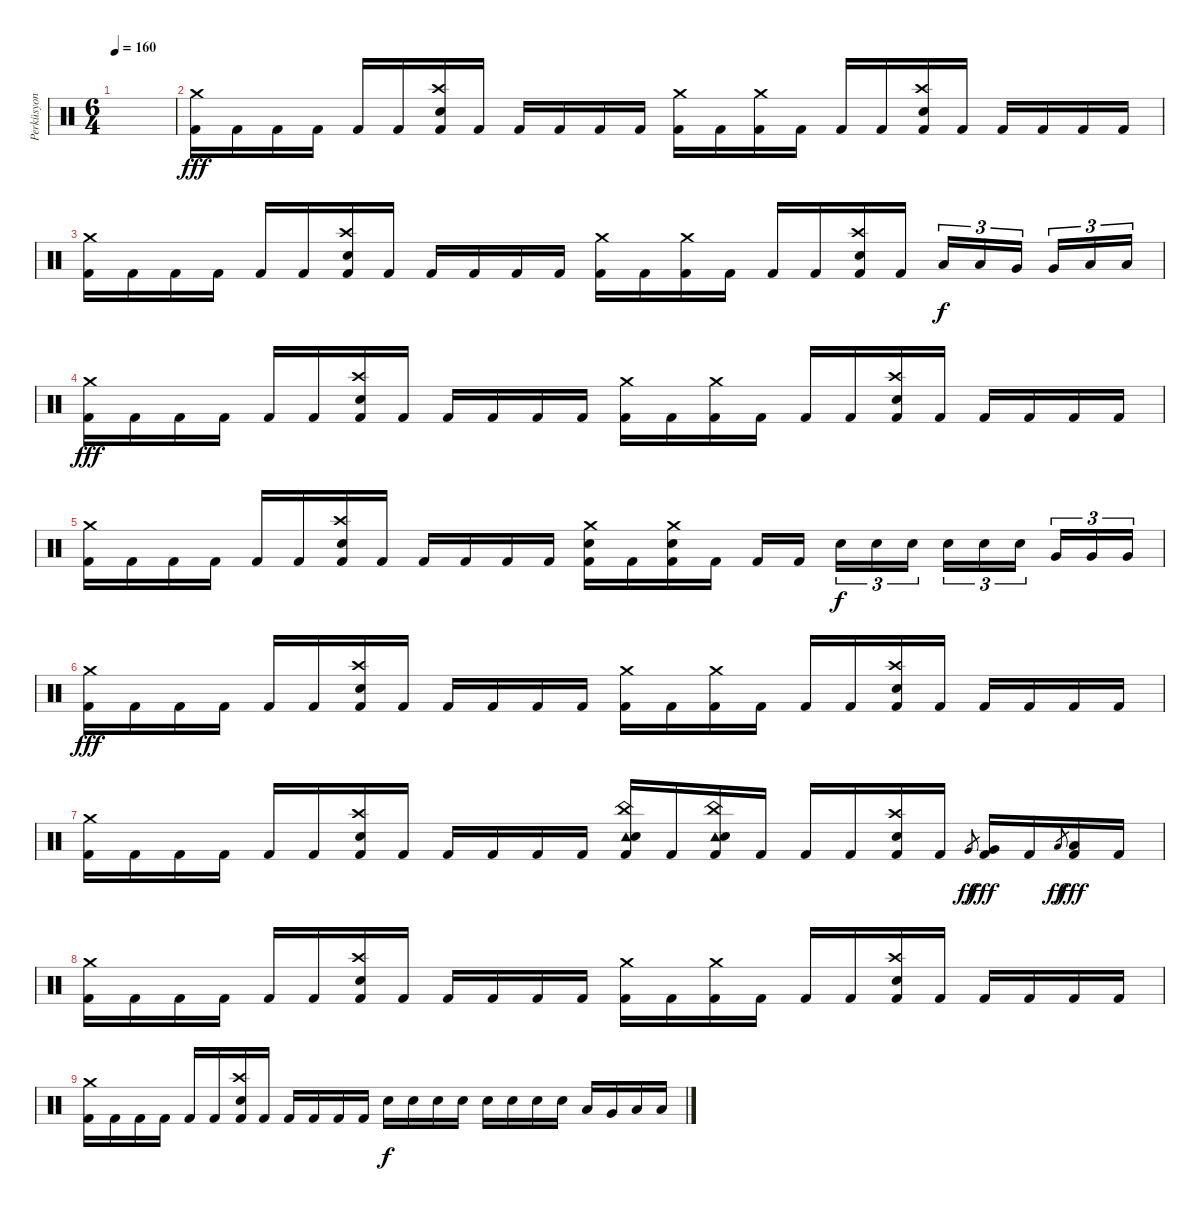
\track ("Perküsyon" "Perküsyon") {instrument percussion}
\staff {score}
\articulation defaults
\ts (6 4)
\tempo 160
\clef neutral
\ks c
|
("Crash medium (hit)" "Kick (hit) 2").16{dy fff} "Kick (hit) 2".16 "Kick (hit) 2".16 "Kick (hit) 2".16 "Kick (hit) 2".16 "Kick (hit) 2".16 ("Crash high (hit)" "Electric Snare (hit)" "Kick (hit) 2").16 "Kick (hit) 2".16 "Kick (hit) 2".16 "Kick (hit) 2".16 "Kick (hit) 2".16 "Kick (hit) 2".16 ("Crash medium (hit)" "Kick (hit) 2").16 "Kick (hit) 2".16 ("Crash medium (hit)" "Kick (hit) 2").16 "Kick (hit) 2".16 "Kick (hit) 2".16 "Kick (hit) 2".16 ("Crash high (hit)" "Electric Snare (hit)" "Kick (hit) 2").16 "Kick (hit) 2".16 "Kick (hit) 2".16 "Kick (hit) 2".16 "Kick (hit) 2".16 "Kick (hit) 2".16 |
("Crash medium (hit)" "Kick (hit) 2").16 "Kick (hit) 2".16 "Kick (hit) 2".16 "Kick (hit) 2".16 "Kick (hit) 2".16 "Kick (hit) 2".16 ("Crash high (hit)" "Electric Snare (hit)" "Kick (hit) 2").16 "Kick (hit) 2".16 "Kick (hit) 2".16 "Kick (hit) 2".16 "Kick (hit) 2".16 "Kick (hit) 2".16 ("Crash medium (hit)" "Kick (hit) 2").16 "Kick (hit) 2".16 ("Crash medium (hit)" "Kick (hit) 2").16 "Kick (hit) 2".16 "Kick (hit) 2".16 "Kick (hit) 2".16 ("Crash high (hit)" "Electric Snare (hit)" "Kick (hit) 2").16 "Kick (hit) 2".16 "Low Tom (hit)".16{tu (3 2) dy f} "Low Tom (hit)".16{tu (3 2)} "Very Low Tom (hit)".16{tu (3 2)} "Very Low Tom (hit)".16{tu (3 2)} "Low Floor Tom (hit)".16{tu (3 2)} "Low Floor Tom (hit)".16{tu (3 2)} |
("Crash medium (hit)" "Kick (hit) 2").16{dy fff} "Kick (hit) 2".16 "Kick (hit) 2".16 "Kick (hit) 2".16 "Kick (hit) 2".16 "Kick (hit) 2".16 ("Crash high (hit)" "Electric Snare (hit)" "Kick (hit) 2").16 "Kick (hit) 2".16 "Kick (hit) 2".16 "Kick (hit) 2".16 "Kick (hit) 2".16 "Kick (hit) 2".16 ("Crash medium (hit)" "Kick (hit) 2").16 "Kick (hit) 2".16 ("Crash medium (hit)" "Kick (hit) 2").16 "Kick (hit) 2".16 "Kick (hit) 2".16 "Kick (hit) 2".16 ("Crash high (hit)" "Electric Snare (hit)" "Kick (hit) 2").16 "Kick (hit) 2".16 "Kick (hit) 2".16 "Kick (hit) 2".16 "Kick (hit) 2".16 "Kick (hit) 2".16 |
("Crash medium (hit)" "Kick (hit) 2").16 "Kick (hit) 2".16 "Kick (hit) 2".16 "Kick (hit) 2".16 "Kick (hit) 2".16 "Kick (hit) 2".16 ("Crash high (hit)" "Electric Snare (hit)" "Kick (hit) 2").16 "Kick (hit) 2".16 "Kick (hit) 2".16 "Kick (hit) 2".16 "Kick (hit) 2".16 "Kick (hit) 2".16 ("Crash medium (hit)" "Electric Snare (hit)" "Kick (hit) 2").16 "Kick (hit) 2".16 ("Crash medium (hit)" "Electric Snare (hit)" "Kick (hit) 2").16 "Kick (hit) 2".16 "Kick (hit) 2".16 "Kick (hit) 2".16 "Electric Snare (hit)".16{tu (3 2) dy f} "Electric Snare (hit)".16{tu (3 2)} "Electric Snare (hit)".16{tu (3 2)} "Electric Snare (hit)".16{tu (3 2)} "Electric Snare (hit)".16{tu (3 2)} "Electric Snare (hit)".16{tu (3 2)} "Very Low Tom (hit)".16{tu (3 2)} "Very Low Tom (hit)".16{tu (3 2)} "Very Low Tom (hit)".16{tu (3 2)} |
("Crash medium (hit)" "Kick (hit) 2").16{dy fff} "Kick (hit) 2".16 "Kick (hit) 2".16 "Kick (hit) 2".16 "Kick (hit) 2".16 "Kick (hit) 2".16 ("Crash high (hit)" "Electric Snare (hit)" "Kick (hit) 2").16 "Kick (hit) 2".16 "Kick (hit) 2".16 "Kick (hit) 2".16 "Kick (hit) 2".16 "Kick (hit) 2".16 ("Crash medium (hit)" "Kick (hit) 2").16 "Kick (hit) 2".16 ("Crash medium (hit)" "Kick (hit) 2").16 "Kick (hit) 2".16 "Kick (hit) 2".16 "Kick (hit) 2".16 ("Crash high (hit)" "Electric Snare (hit)" "Kick (hit) 2").16 "Kick (hit) 2".16 "Kick (hit) 2".16 "Kick (hit) 2".16 "Kick (hit) 2".16 "Kick (hit) 2".16 |
("Crash medium (hit)" "Kick (hit) 2").16 "Kick (hit) 2".16 "Kick (hit) 2".16 "Kick (hit) 2".16 "Kick (hit) 2".16 "Kick (hit) 2".16 ("Crash high (hit)" "Electric Snare (hit)" "Kick (hit) 2").16 "Kick (hit) 2".16 "Kick (hit) 2".16 "Kick (hit) 2".16 "Kick (hit) 2".16 "Kick (hit) 2".16 ("China (hit)" "Tambourine (hit)" "Electric Snare (hit)" "Kick (hit) 2").16 "Kick (hit) 2".16 ("China (hit)" "Tambourine (hit)" "Electric Snare (hit)" "Kick (hit) 2").16 "Kick (hit) 2".16 "Kick (hit) 2".16 "Kick (hit) 2".16 ("Crash high (hit)" "Electric Snare (hit)" "Kick (hit) 2").16 "Kick (hit) 2".16 "Very Low Tom (hit)".8{gr dy ff} ("Very Low Tom (hit)" "Kick (hit) 2").16{dy fff} "Kick (hit) 2".16 "Low Floor Tom (hit)".8{gr dy ff} ("Low Floor Tom (hit)" "Kick (hit) 2").16{dy fff} "Kick (hit) 2".16 |
("Crash medium (hit)" "Kick (hit) 2").16 "Kick (hit) 2".16 "Kick (hit) 2".16 "Kick (hit) 2".16 "Kick (hit) 2".16 "Kick (hit) 2".16 ("Crash high (hit)" "Electric Snare (hit)" "Kick (hit) 2").16 "Kick (hit) 2".16 "Kick (hit) 2".16 "Kick (hit) 2".16 "Kick (hit) 2".16 "Kick (hit) 2".16 ("Crash medium (hit)" "Kick (hit) 2").16 "Kick (hit) 2".16 ("Crash medium (hit)" "Kick (hit) 2").16 "Kick (hit) 2".16 "Kick (hit) 2".16 "Kick (hit) 2".16 ("Crash high (hit)" "Electric Snare (hit)" "Kick (hit) 2").16 "Kick (hit) 2".16 "Kick (hit) 2".16 "Kick (hit) 2".16 "Kick (hit) 2".16 "Kick (hit) 2".16 |
("Crash medium (hit)" "Kick (hit) 2").16 "Kick (hit) 2".16 "Kick (hit) 2".16 "Kick (hit) 2".16 "Kick (hit) 2".16 "Kick (hit) 2".16 ("Crash high (hit)" "Electric Snare (hit)" "Kick (hit) 2").16 "Kick (hit) 2".16 "Kick (hit) 2".16 "Kick (hit) 2".16 "Kick (hit) 2".16 "Kick (hit) 2".16 "Electric Snare (hit)".16{dy f} "Electric Snare (hit)".16 "Electric Snare (hit)".16 "Electric Snare (hit)".16 "Electric Snare (hit)".16 "Electric Snare (hit)".16 "Electric Snare (hit)".16 "Electric Snare (hit)".16 "Low Tom (hit)".16 "Very Low Tom (hit)".16 "Low Floor Tom (hit)".16 "Low Floor Tom (hit)".16
